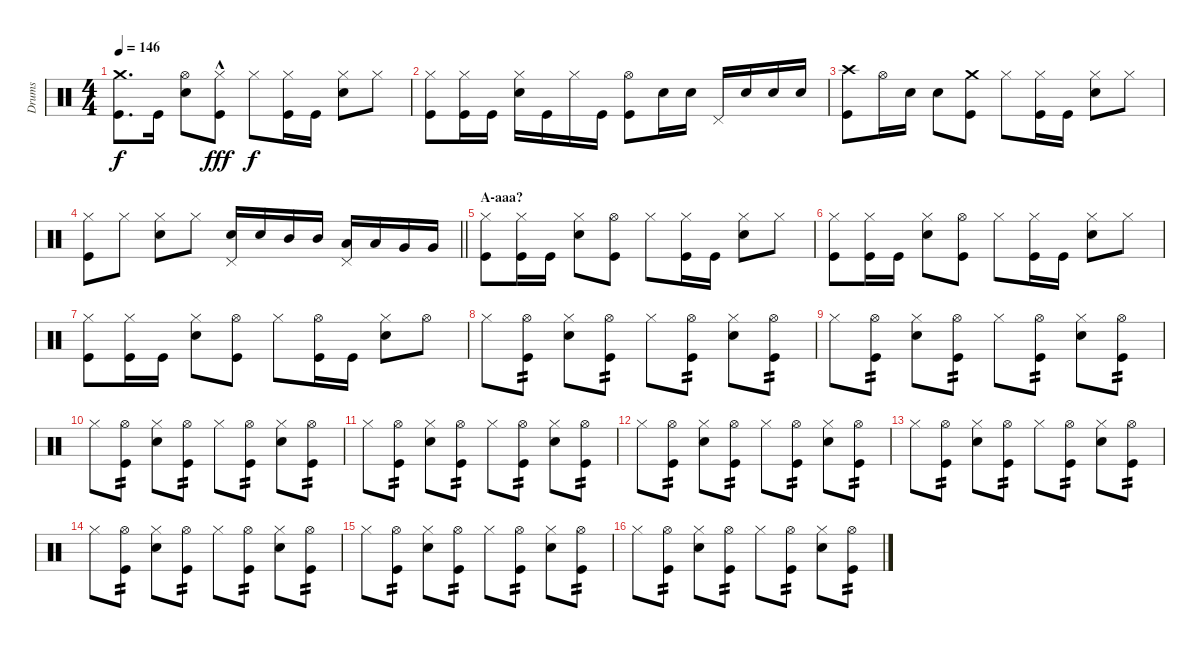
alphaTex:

\track ("Drums" "Drums") {instrument percussion}
\staff {score}
\articulation defaults
\ts (4 4)
\tempo 146
\clef neutral
\ks c
("Crash medium (hit)" "Kick (hit)").8{d dy f} "Kick (hit)".16 ("Hi-Hat (open)" "Electric Snare (hit)").8 ("Hi-Hat (closed)"{hac} "Kick (hit)"{hac}).8{dy fff} "Hi-Hat (closed)".8{dy f} ("Hi-Hat (closed)" "Kick (hit)").16 "Kick (hit)".16 ("Hi-Hat (closed)" "Electric Snare (hit)").8 "Hi-Hat (closed)".8 |
("Hi-Hat (closed)" "Kick (hit)").8 ("Hi-Hat (closed)" "Kick (hit)").16 "Kick (hit)".16 ("Hi-Hat (closed)" "Electric Snare (hit)").16 "Kick (hit)".16 "Hi-Hat (closed)".16 "Kick (hit)".16 ("Hi-Hat (open)" "Kick (hit)").8 "Electric Snare (hit)".16 "Electric Snare (hit)".16 "Pedal Hi-Hat (hit)".16 "Electric Snare (hit)".16 "Electric Snare (hit)".16 "Electric Snare (hit)".16 |
("Crash high (hit)" "Kick (hit)").8 "Hi-Hat (open)".16 "Electric Snare (hit)".16 "Electric Snare (hit)".8 ("Crash medium (hit)" "Kick (hit)").8 "Hi-Hat (closed)".8 ("Hi-Hat (closed)" "Kick (hit)").16 "Kick (hit)".16 ("Hi-Hat (closed)" "Electric Snare (hit)").8 "Hi-Hat (closed)".8 |
\barLineRight lightlight
("Hi-Hat (closed)" "Kick (hit)").8 "Hi-Hat (closed)".8 ("Hi-Hat (closed)" "Electric Snare (hit)").8 "Hi-Hat (closed)".8 ("Pedal Hi-Hat (hit)" "Electric Snare (hit)").16 "Electric Snare (hit)".16 "Mid Tom (hit)".16 "Mid Tom (hit)".16 ("Pedal Hi-Hat (hit)" "Low Tom (hit)").16 "Low Tom (hit)".16 "Very Low Tom (hit)".16 "Very Low Tom (hit)".16 |
\section ("" "A-aaa?")
("Hi-Hat (closed)" "Kick (hit)").8 ("Hi-Hat (closed)" "Kick (hit)").16 "Kick (hit)".16 ("Hi-Hat (closed)" "Electric Snare (hit)").8 ("Hi-Hat (open)" "Kick (hit)").8 "Hi-Hat (closed)".8 ("Hi-Hat (closed)" "Kick (hit)").16 "Kick (hit)".16 ("Hi-Hat (closed)" "Electric Snare (hit)").8 "Hi-Hat (closed)".8 |
("Hi-Hat (closed)" "Kick (hit)").8 ("Hi-Hat (closed)" "Kick (hit)").16 "Kick (hit)".16 ("Hi-Hat (closed)" "Electric Snare (hit)").8 ("Hi-Hat (open)" "Kick (hit)").8 "Hi-Hat (closed)".8 ("Hi-Hat (closed)" "Kick (hit)").16 "Kick (hit)".16 ("Hi-Hat (closed)" "Electric Snare (hit)").8 "Hi-Hat (closed)".8 |
("Hi-Hat (closed)" "Kick (hit)").8 ("Hi-Hat (closed)" "Kick (hit)").16 "Kick (hit)".16 ("Hi-Hat (closed)" "Electric Snare (hit)").8 ("Hi-Hat (open)" "Kick (hit)").8 "Hi-Hat (closed)".8 ("Hi-Hat (open)" "Kick (hit)").16 "Kick (hit)".16 ("Hi-Hat (closed)" "Electric Snare (hit)").8 "Hi-Hat (open)".8 |
"Hi-Hat (closed)".8 ("Hi-Hat (open)" "Kick (hit)").8{tp 2} ("Hi-Hat (closed)" "Electric Snare (hit)").8 ("Hi-Hat (open)" "Kick (hit)").8{tp 2} "Hi-Hat (closed)".8 ("Hi-Hat (open)" "Kick (hit)").8{tp 2} ("Hi-Hat (closed)" "Electric Snare (hit)").8 ("Hi-Hat (open)" "Kick (hit)").8{tp 2} |
"Hi-Hat (closed)".8 ("Hi-Hat (open)" "Kick (hit)").8{tp 2} ("Hi-Hat (closed)" "Electric Snare (hit)").8 ("Hi-Hat (open)" "Kick (hit)").8{tp 2} "Hi-Hat (closed)".8 ("Hi-Hat (open)" "Kick (hit)").8{tp 2} ("Hi-Hat (closed)" "Electric Snare (hit)").8 ("Hi-Hat (open)" "Kick (hit)").8{tp 2} |
"Hi-Hat (closed)".8 ("Hi-Hat (open)" "Kick (hit)").8{tp 2} ("Hi-Hat (closed)" "Electric Snare (hit)").8 ("Hi-Hat (open)" "Kick (hit)").8{tp 2} "Hi-Hat (closed)".8 ("Hi-Hat (open)" "Kick (hit)").8{tp 2} ("Hi-Hat (closed)" "Electric Snare (hit)").8 ("Hi-Hat (open)" "Kick (hit)").8{tp 2} |
"Hi-Hat (closed)".8 ("Hi-Hat (open)" "Kick (hit)").8{tp 2} ("Hi-Hat (closed)" "Electric Snare (hit)").8 ("Hi-Hat (open)" "Kick (hit)").8{tp 2} "Hi-Hat (closed)".8 ("Hi-Hat (open)" "Kick (hit)").8{tp 2} ("Hi-Hat (closed)" "Electric Snare (hit)").8 ("Hi-Hat (open)" "Kick (hit)").8{tp 2} |
"Hi-Hat (closed)".8 ("Hi-Hat (open)" "Kick (hit)").8{tp 2} ("Hi-Hat (closed)" "Electric Snare (hit)").8 ("Hi-Hat (open)" "Kick (hit)").8{tp 2} "Hi-Hat (closed)".8 ("Hi-Hat (open)" "Kick (hit)").8{tp 2} ("Hi-Hat (closed)" "Electric Snare (hit)").8 ("Hi-Hat (open)" "Kick (hit)").8{tp 2} |
"Hi-Hat (closed)".8 ("Hi-Hat (open)" "Kick (hit)").8{tp 2} ("Hi-Hat (closed)" "Electric Snare (hit)").8 ("Hi-Hat (open)" "Kick (hit)").8{tp 2} "Hi-Hat (closed)".8 ("Hi-Hat (open)" "Kick (hit)").8{tp 2} ("Hi-Hat (closed)" "Electric Snare (hit)").8 ("Hi-Hat (open)" "Kick (hit)").8{tp 2} |
"Hi-Hat (closed)".8 ("Hi-Hat (open)" "Kick (hit)").8{tp 2} ("Hi-Hat (closed)" "Electric Snare (hit)").8 ("Hi-Hat (open)" "Kick (hit)").8{tp 2} "Hi-Hat (closed)".8 ("Hi-Hat (open)" "Kick (hit)").8{tp 2} ("Hi-Hat (closed)" "Electric Snare (hit)").8 ("Hi-Hat (open)" "Kick (hit)").8{tp 2} |
"Hi-Hat (closed)".8 ("Hi-Hat (open)" "Kick (hit)").8{tp 2} ("Hi-Hat (closed)" "Electric Snare (hit)").8 ("Hi-Hat (open)" "Kick (hit)").8{tp 2} "Hi-Hat (closed)".8 ("Hi-Hat (open)" "Kick (hit)").8{tp 2} ("Hi-Hat (closed)" "Electric Snare (hit)").8 ("Hi-Hat (open)" "Kick (hit)").8{tp 2} |
"Hi-Hat (closed)".8 ("Hi-Hat (open)" "Kick (hit)").8{tp 2} ("Hi-Hat (closed)" "Electric Snare (hit)").8 ("Hi-Hat (open)" "Kick (hit)").8{tp 2} "Hi-Hat (closed)".8 ("Hi-Hat (open)" "Kick (hit)").8{tp 2} ("Hi-Hat (closed)" "Electric Snare (hit)").8 ("Hi-Hat (open)" "Kick (hit)").8{tp 2}
